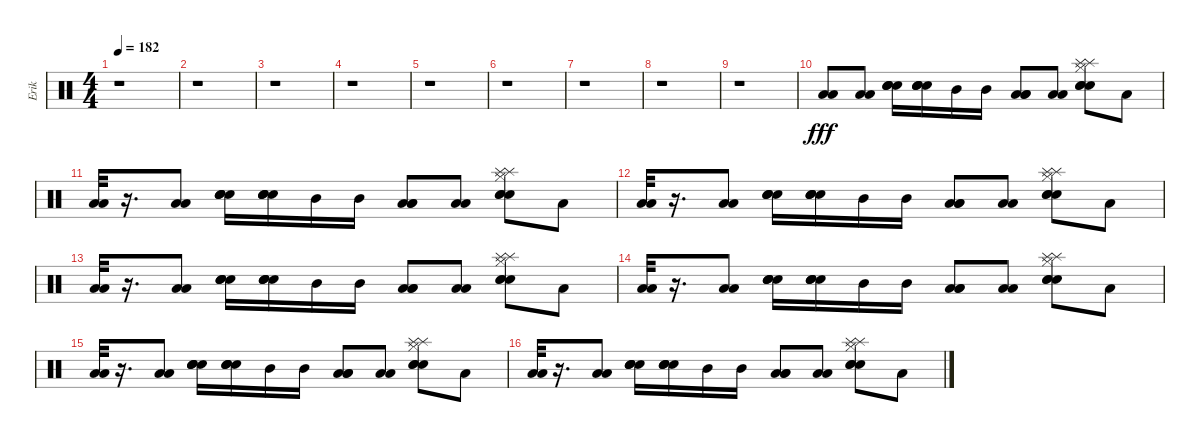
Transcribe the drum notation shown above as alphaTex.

\track ("Erik" "Erik") {instrument percussion}
\staff {score}
\articulation defaults
\ts (4 4)
\tempo 182
\clef neutral
\ks c
r.1{dy fff} |
r.1 |
r.1 |
r.1 |
r.1 |
r.1 |
r.1 |
r.1 |
r.1 |
("Low Tom (hit)" "Low Tom (hit)").8 ("Low Tom (hit)" "Low Tom (hit)").8 ("Electric Snare (hit)" "Electric Snare (hit)" "Snare (hit) 2" "Snare (hit) 2").16 ("Electric Snare (hit)" "Electric Snare (hit)" "Snare (hit) 2" "Snare (hit) 2").16 "Mid Tom (hit)".16 "Mid Tom (hit)".16 ("Low Tom (hit)" "Low Tom (hit)" "Low Tom (hit)").8 ("Low Tom (hit)" "Low Tom (hit)").8 ("Splash (hit)" "Splash (hit)" "Hi-Hat (closed)" "Electric Snare (hit)" "Electric Snare (hit)" "Snare (hit) 2").8 "Low Tom (hit)".8 |
("Low Tom (hit)" "Low Tom (hit)").32 r.16{d} ("Low Tom (hit)" "Low Tom (hit)").8 ("Electric Snare (hit)" "Electric Snare (hit)" "Snare (hit) 2" "Snare (hit) 2").16 ("Electric Snare (hit)" "Electric Snare (hit)" "Snare (hit) 2" "Snare (hit) 2").16 "Mid Tom (hit)".16 "Mid Tom (hit)".16 ("Low Tom (hit)" "Low Tom (hit)" "Low Tom (hit)").8 ("Low Tom (hit)" "Low Tom (hit)").8 ("Splash (hit)" "Splash (hit)" "Hi-Hat (closed)" "Electric Snare (hit)" "Electric Snare (hit)" "Snare (hit) 2").8 "Low Tom (hit)".8 |
("Low Tom (hit)" "Low Tom (hit)").32 r.16{d} ("Low Tom (hit)" "Low Tom (hit)").8 ("Electric Snare (hit)" "Electric Snare (hit)" "Snare (hit) 2" "Snare (hit) 2").16 ("Electric Snare (hit)" "Electric Snare (hit)" "Snare (hit) 2" "Snare (hit) 2").16 "Mid Tom (hit)".16 "Mid Tom (hit)".16 ("Low Tom (hit)" "Low Tom (hit)" "Low Tom (hit)").8 ("Low Tom (hit)" "Low Tom (hit)").8 ("Splash (hit)" "Splash (hit)" "Hi-Hat (closed)" "Electric Snare (hit)" "Electric Snare (hit)" "Snare (hit) 2").8 "Low Tom (hit)".8 |
("Low Tom (hit)" "Low Tom (hit)").32 r.16{d} ("Low Tom (hit)" "Low Tom (hit)").8 ("Electric Snare (hit)" "Electric Snare (hit)" "Snare (hit) 2" "Snare (hit) 2").16 ("Electric Snare (hit)" "Electric Snare (hit)" "Snare (hit) 2" "Snare (hit) 2").16 "Mid Tom (hit)".16 "Mid Tom (hit)".16 ("Low Tom (hit)" "Low Tom (hit)" "Low Tom (hit)").8 ("Low Tom (hit)" "Low Tom (hit)").8 ("Splash (hit)" "Splash (hit)" "Hi-Hat (closed)" "Electric Snare (hit)" "Electric Snare (hit)" "Snare (hit) 2").8 "Low Tom (hit)".8 |
("Low Tom (hit)" "Low Tom (hit)").32 r.16{d} ("Low Tom (hit)" "Low Tom (hit)").8 ("Electric Snare (hit)" "Electric Snare (hit)" "Snare (hit) 2" "Snare (hit) 2").16 ("Electric Snare (hit)" "Electric Snare (hit)" "Snare (hit) 2" "Snare (hit) 2").16 "Mid Tom (hit)".16 "Mid Tom (hit)".16 ("Low Tom (hit)" "Low Tom (hit)" "Low Tom (hit)").8 ("Low Tom (hit)" "Low Tom (hit)").8 ("Splash (hit)" "Splash (hit)" "Hi-Hat (closed)" "Electric Snare (hit)" "Electric Snare (hit)" "Snare (hit) 2").8 "Low Tom (hit)".8 |
("Low Tom (hit)" "Low Tom (hit)").32 r.16{d} ("Low Tom (hit)" "Low Tom (hit)").8 ("Electric Snare (hit)" "Electric Snare (hit)" "Snare (hit) 2" "Snare (hit) 2").16 ("Electric Snare (hit)" "Electric Snare (hit)" "Snare (hit) 2" "Snare (hit) 2").16 "Mid Tom (hit)".16 "Mid Tom (hit)".16 ("Low Tom (hit)" "Low Tom (hit)" "Low Tom (hit)").8 ("Low Tom (hit)" "Low Tom (hit)").8 ("Splash (hit)" "Splash (hit)" "Hi-Hat (closed)" "Electric Snare (hit)" "Electric Snare (hit)" "Snare (hit) 2").8 "Low Tom (hit)".8 |
("Low Tom (hit)" "Low Tom (hit)").32 r.16{d} ("Low Tom (hit)" "Low Tom (hit)").8 ("Electric Snare (hit)" "Electric Snare (hit)" "Snare (hit) 2" "Snare (hit) 2").16 ("Electric Snare (hit)" "Electric Snare (hit)" "Snare (hit) 2" "Snare (hit) 2").16 "Mid Tom (hit)".16 "Mid Tom (hit)".16 ("Low Tom (hit)" "Low Tom (hit)" "Low Tom (hit)").8 ("Low Tom (hit)" "Low Tom (hit)").8 ("Splash (hit)" "Splash (hit)" "Hi-Hat (closed)" "Electric Snare (hit)" "Electric Snare (hit)" "Snare (hit) 2").8 "Low Tom (hit)".8
